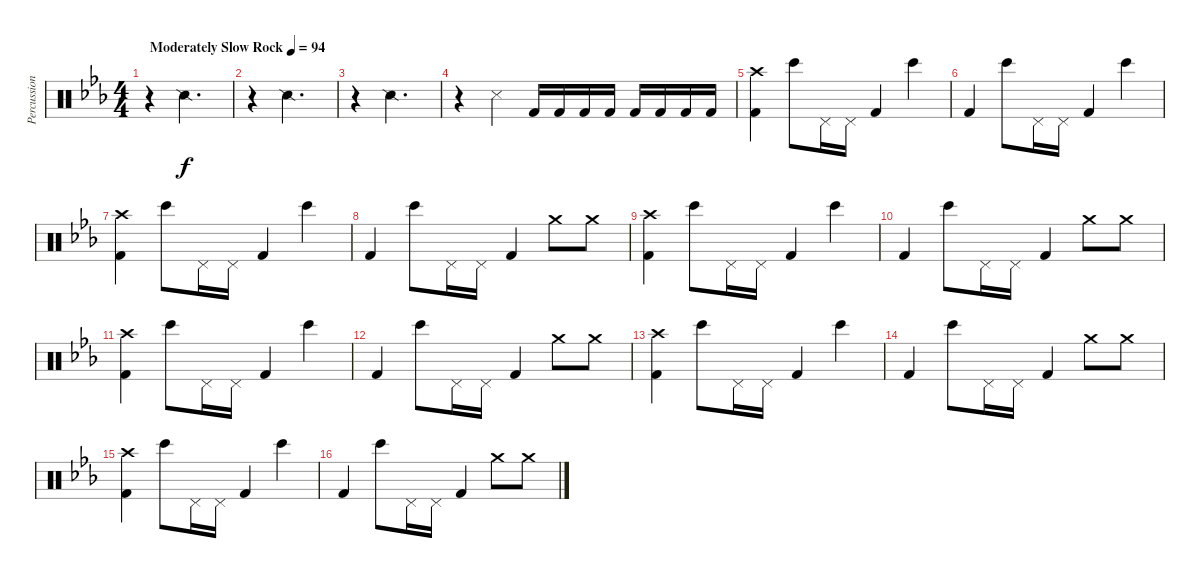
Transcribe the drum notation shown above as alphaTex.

\track ("Percussion" "Percussion") {instrument percussion}
\staff {score}
\articulation defaults
\ts (4 4)
\tempo (94 "Moderately Slow Rock")
\clef neutral
\ks eb
r.4{dy f} "Snare (side stick) 2".2{d} |
r.4 "Snare (side stick) 2".2{d} |
r.4 "Snare (side stick) 2".2{d} |
r.4 "Metronome (hit)".4 "Kick (hit) 2".16 "Kick (hit) 2".16 "Kick (hit) 2".16 "Kick (hit) 2".16 "Kick (hit) 2".16 "Kick (hit) 2".16 "Kick (hit) 2".16 "Kick (hit) 2".16 |
("Crash high (hit)" "Kick (hit) 2").4 "Bongo High (hit)".8 "Pedal Hi-Hat (hit)".16 "Pedal Hi-Hat (hit)".16 "Kick (hit) 2".4 "Bongo High (hit)".4 |
"Kick (hit) 2".4 "Bongo High (hit)".8 "Pedal Hi-Hat (hit)".16 "Pedal Hi-Hat (hit)".16 "Kick (hit) 2".4 "Bongo High (hit)".4 |
("Crash high (hit)" "Kick (hit) 2").4 "Bongo High (hit)".8 "Pedal Hi-Hat (hit)".16 "Pedal Hi-Hat (hit)".16 "Kick (hit) 2".4 "Bongo High (hit)".4 |
"Kick (hit) 2".4 "Bongo High (hit)".8 "Pedal Hi-Hat (hit)".16 "Pedal Hi-Hat (hit)".16 "Kick (hit) 2".4 "Crash medium (hit)".8 "Crash medium (hit)".8 |
("Kick (hit) 2" "Crash high (hit)").4 "Bongo High (hit)".8 "Pedal Hi-Hat (hit)".16 "Pedal Hi-Hat (hit)".16 "Kick (hit) 2".4 "Bongo High (hit)".4 |
"Kick (hit) 2".4 "Bongo High (hit)".8 "Pedal Hi-Hat (hit)".16 "Pedal Hi-Hat (hit)".16 "Kick (hit) 2".4 "Crash medium (hit)".8 "Crash medium (hit)".8 |
("Kick (hit) 2" "Crash high (hit)").4 "Bongo High (hit)".8 "Pedal Hi-Hat (hit)".16 "Pedal Hi-Hat (hit)".16 "Kick (hit) 2".4 "Bongo High (hit)".4 |
"Kick (hit) 2".4 "Bongo High (hit)".8 "Pedal Hi-Hat (hit)".16 "Pedal Hi-Hat (hit)".16 "Kick (hit) 2".4 "Crash medium (hit)".8 "Crash medium (hit)".8 |
("Kick (hit) 2" "Crash high (hit)").4 "Bongo High (hit)".8 "Pedal Hi-Hat (hit)".16 "Pedal Hi-Hat (hit)".16 "Kick (hit) 2".4 "Bongo High (hit)".4 |
"Kick (hit) 2".4 "Bongo High (hit)".8 "Pedal Hi-Hat (hit)".16 "Pedal Hi-Hat (hit)".16 "Kick (hit) 2".4 "Crash medium (hit)".8 "Crash medium (hit)".8 |
("Kick (hit) 2" "Crash high (hit)").4 "Bongo High (hit)".8 "Pedal Hi-Hat (hit)".16 "Pedal Hi-Hat (hit)".16 "Kick (hit) 2".4 "Bongo High (hit)".4 |
"Kick (hit) 2".4 "Bongo High (hit)".8 "Pedal Hi-Hat (hit)".16 "Pedal Hi-Hat (hit)".16 "Kick (hit) 2".4 "Crash medium (hit)".8 "Crash medium (hit)".8
